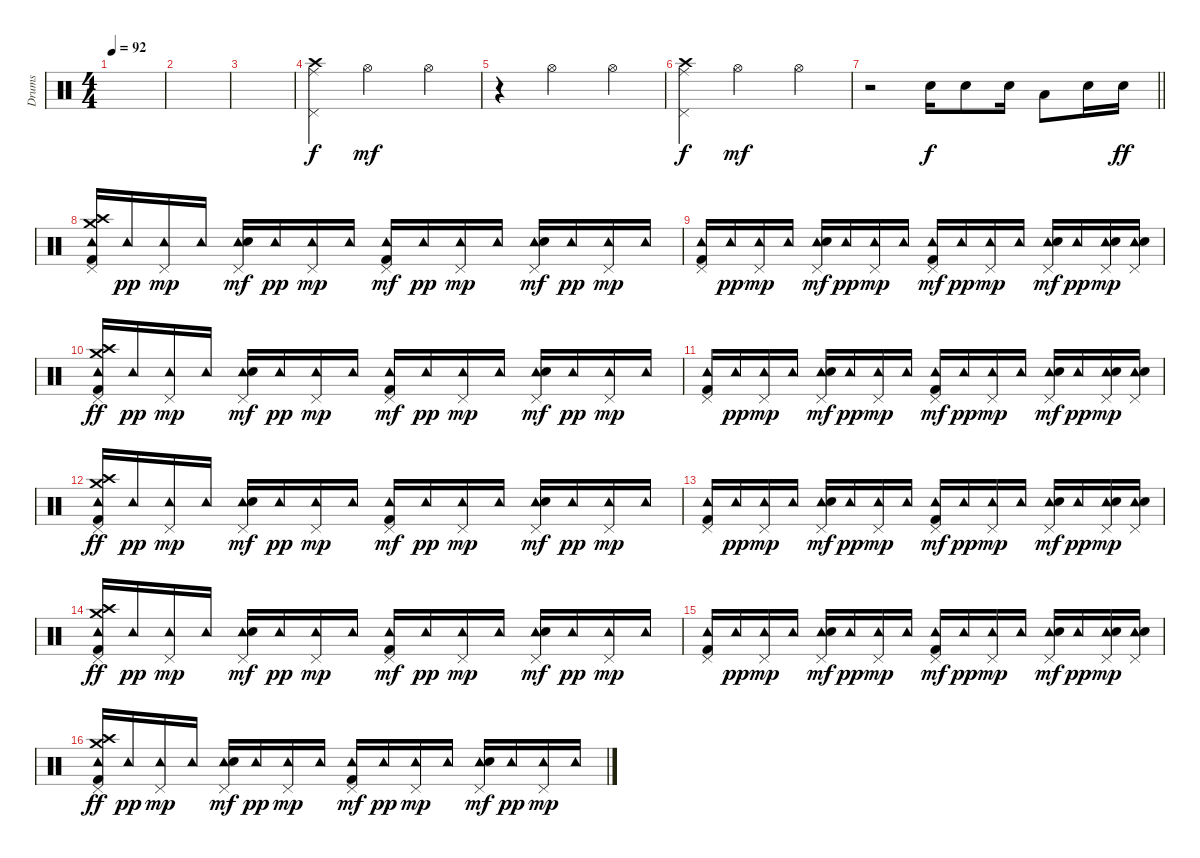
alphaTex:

\track ("Drums" "Drums") {instrument percussion}
\staff {score}
\articulation defaults
\ts (4 4)
\tempo 92
\clef neutral
\ks c
|
|
|
("Pedal Hi-Hat (hit)" "Ride (middle)" "Crash high (hit)").4{dy f} "Hi-Hat (open)".2{dy mf} "Hi-Hat (open)".4 |
r.4 "Hi-Hat (open)".2 "Hi-Hat (open)".4 |
("Pedal Hi-Hat (hit)" "Ride (middle)" "Crash high (hit)").4{dy f} "Hi-Hat (open)".2{dy mf} "Hi-Hat (open)".4 |
\barLineRight lightlight
r.2 "Electric Snare (hit)".16{dy f} "Electric Snare (hit)".8 "Electric Snare (hit)".16 "Low Floor Tom (hit)".8 "Electric Snare (hit)".16 "Electric Snare (hit)".16{dy ff} |
("Pedal Hi-Hat (hit)" "Tambourine (hit)" "Crash medium (hit)" "Crash high (hit)" "Kick (hit) 2").16 "Tambourine (hit)".16{dy pp} ("Pedal Hi-Hat (hit)" "Tambourine (hit)").16{dy mp} "Tambourine (hit)".16 ("Pedal Hi-Hat (hit)" "Tambourine (hit)" "Electric Snare (hit)").16{dy mf} "Tambourine (hit)".16{dy pp} ("Pedal Hi-Hat (hit)" "Tambourine (hit)").16{dy mp} "Tambourine (hit)".16 ("Pedal Hi-Hat (hit)" "Tambourine (hit)" "Kick (hit) 2").16{dy mf} "Tambourine (hit)".16{dy pp} ("Pedal Hi-Hat (hit)" "Tambourine (hit)").16{dy mp} "Tambourine (hit)".16 ("Pedal Hi-Hat (hit)" "Tambourine (hit)" "Electric Snare (hit)").16{dy mf} "Tambourine (hit)".16{dy pp} ("Pedal Hi-Hat (hit)" "Tambourine (hit)").16{dy mp} "Tambourine (hit)".16 |
("Pedal Hi-Hat (hit)" "Tambourine (hit)" "Kick (hit) 2").16 "Tambourine (hit)".16{dy pp} ("Pedal Hi-Hat (hit)" "Tambourine (hit)").16{dy mp} "Tambourine (hit)".16 ("Pedal Hi-Hat (hit)" "Tambourine (hit)" "Electric Snare (hit)").16{dy mf} "Tambourine (hit)".16{dy pp} ("Pedal Hi-Hat (hit)" "Tambourine (hit)").16{dy mp} "Tambourine (hit)".16 ("Pedal Hi-Hat (hit)" "Tambourine (hit)" "Kick (hit) 2").16{dy mf} "Tambourine (hit)".16{dy pp} ("Pedal Hi-Hat (hit)" "Tambourine (hit)").16{dy mp} "Tambourine (hit)".16 ("Pedal Hi-Hat (hit)" "Tambourine (hit)" "Electric Snare (hit)").16{dy mf} "Tambourine (hit)".16{dy pp} ("Pedal Hi-Hat (hit)" "Tambourine (hit)" "Electric Snare (hit)").16{dy mp} ("Pedal Hi-Hat (hit)" "Tambourine (hit)" "Electric Snare (hit)").16 |
("Pedal Hi-Hat (hit)" "Tambourine (hit)" "Crash medium (hit)" "Crash high (hit)" "Kick (hit) 2").16{dy ff} "Tambourine (hit)".16{dy pp} ("Pedal Hi-Hat (hit)" "Tambourine (hit)").16{dy mp} "Tambourine (hit)".16 ("Pedal Hi-Hat (hit)" "Tambourine (hit)" "Electric Snare (hit)").16{dy mf} "Tambourine (hit)".16{dy pp} ("Pedal Hi-Hat (hit)" "Tambourine (hit)").16{dy mp} "Tambourine (hit)".16 ("Pedal Hi-Hat (hit)" "Tambourine (hit)" "Kick (hit) 2").16{dy mf} "Tambourine (hit)".16{dy pp} ("Pedal Hi-Hat (hit)" "Tambourine (hit)").16{dy mp} "Tambourine (hit)".16 ("Pedal Hi-Hat (hit)" "Tambourine (hit)" "Electric Snare (hit)").16{dy mf} "Tambourine (hit)".16{dy pp} ("Pedal Hi-Hat (hit)" "Tambourine (hit)").16{dy mp} "Tambourine (hit)".16 |
("Pedal Hi-Hat (hit)" "Tambourine (hit)" "Kick (hit) 2").16 "Tambourine (hit)".16{dy pp} ("Pedal Hi-Hat (hit)" "Tambourine (hit)").16{dy mp} "Tambourine (hit)".16 ("Pedal Hi-Hat (hit)" "Tambourine (hit)" "Electric Snare (hit)").16{dy mf} "Tambourine (hit)".16{dy pp} ("Pedal Hi-Hat (hit)" "Tambourine (hit)").16{dy mp} "Tambourine (hit)".16 ("Pedal Hi-Hat (hit)" "Tambourine (hit)" "Kick (hit) 2").16{dy mf} "Tambourine (hit)".16{dy pp} ("Pedal Hi-Hat (hit)" "Tambourine (hit)").16{dy mp} "Tambourine (hit)".16 ("Pedal Hi-Hat (hit)" "Tambourine (hit)" "Electric Snare (hit)").16{dy mf} "Tambourine (hit)".16{dy pp} ("Pedal Hi-Hat (hit)" "Tambourine (hit)" "Electric Snare (hit)").16{dy mp} ("Pedal Hi-Hat (hit)" "Tambourine (hit)" "Electric Snare (hit)").16 |
("Pedal Hi-Hat (hit)" "Tambourine (hit)" "Crash medium (hit)" "Crash high (hit)" "Kick (hit) 2").16{dy ff} "Tambourine (hit)".16{dy pp} ("Pedal Hi-Hat (hit)" "Tambourine (hit)").16{dy mp} "Tambourine (hit)".16 ("Pedal Hi-Hat (hit)" "Tambourine (hit)" "Electric Snare (hit)").16{dy mf} "Tambourine (hit)".16{dy pp} ("Pedal Hi-Hat (hit)" "Tambourine (hit)").16{dy mp} "Tambourine (hit)".16 ("Pedal Hi-Hat (hit)" "Tambourine (hit)" "Kick (hit) 2").16{dy mf} "Tambourine (hit)".16{dy pp} ("Pedal Hi-Hat (hit)" "Tambourine (hit)").16{dy mp} "Tambourine (hit)".16 ("Pedal Hi-Hat (hit)" "Tambourine (hit)" "Electric Snare (hit)").16{dy mf} "Tambourine (hit)".16{dy pp} ("Pedal Hi-Hat (hit)" "Tambourine (hit)").16{dy mp} "Tambourine (hit)".16 |
("Pedal Hi-Hat (hit)" "Tambourine (hit)" "Kick (hit) 2").16 "Tambourine (hit)".16{dy pp} ("Pedal Hi-Hat (hit)" "Tambourine (hit)").16{dy mp} "Tambourine (hit)".16 ("Pedal Hi-Hat (hit)" "Tambourine (hit)" "Electric Snare (hit)").16{dy mf} "Tambourine (hit)".16{dy pp} ("Pedal Hi-Hat (hit)" "Tambourine (hit)").16{dy mp} "Tambourine (hit)".16 ("Pedal Hi-Hat (hit)" "Tambourine (hit)" "Kick (hit) 2").16{dy mf} "Tambourine (hit)".16{dy pp} ("Pedal Hi-Hat (hit)" "Tambourine (hit)").16{dy mp} "Tambourine (hit)".16 ("Pedal Hi-Hat (hit)" "Tambourine (hit)" "Electric Snare (hit)").16{dy mf} "Tambourine (hit)".16{dy pp} ("Pedal Hi-Hat (hit)" "Tambourine (hit)" "Electric Snare (hit)").16{dy mp} ("Pedal Hi-Hat (hit)" "Tambourine (hit)" "Electric Snare (hit)").16 |
("Pedal Hi-Hat (hit)" "Tambourine (hit)" "Crash medium (hit)" "Crash high (hit)" "Kick (hit) 2").16{dy ff} "Tambourine (hit)".16{dy pp} ("Pedal Hi-Hat (hit)" "Tambourine (hit)").16{dy mp} "Tambourine (hit)".16 ("Pedal Hi-Hat (hit)" "Tambourine (hit)" "Electric Snare (hit)").16{dy mf} "Tambourine (hit)".16{dy pp} ("Pedal Hi-Hat (hit)" "Tambourine (hit)").16{dy mp} "Tambourine (hit)".16 ("Pedal Hi-Hat (hit)" "Tambourine (hit)" "Kick (hit) 2").16{dy mf} "Tambourine (hit)".16{dy pp} ("Pedal Hi-Hat (hit)" "Tambourine (hit)").16{dy mp} "Tambourine (hit)".16 ("Pedal Hi-Hat (hit)" "Tambourine (hit)" "Electric Snare (hit)").16{dy mf} "Tambourine (hit)".16{dy pp} ("Pedal Hi-Hat (hit)" "Tambourine (hit)").16{dy mp} "Tambourine (hit)".16 |
("Pedal Hi-Hat (hit)" "Tambourine (hit)" "Kick (hit) 2").16 "Tambourine (hit)".16{dy pp} ("Pedal Hi-Hat (hit)" "Tambourine (hit)").16{dy mp} "Tambourine (hit)".16 ("Pedal Hi-Hat (hit)" "Tambourine (hit)" "Electric Snare (hit)").16{dy mf} "Tambourine (hit)".16{dy pp} ("Pedal Hi-Hat (hit)" "Tambourine (hit)").16{dy mp} "Tambourine (hit)".16 ("Pedal Hi-Hat (hit)" "Tambourine (hit)" "Kick (hit) 2").16{dy mf} "Tambourine (hit)".16{dy pp} ("Pedal Hi-Hat (hit)" "Tambourine (hit)").16{dy mp} "Tambourine (hit)".16 ("Pedal Hi-Hat (hit)" "Tambourine (hit)" "Electric Snare (hit)").16{dy mf} "Tambourine (hit)".16{dy pp} ("Pedal Hi-Hat (hit)" "Tambourine (hit)" "Electric Snare (hit)").16{dy mp} ("Pedal Hi-Hat (hit)" "Tambourine (hit)" "Electric Snare (hit)").16 |
("Pedal Hi-Hat (hit)" "Tambourine (hit)" "Crash medium (hit)" "Crash high (hit)" "Kick (hit) 2").16{dy ff} "Tambourine (hit)".16{dy pp} ("Pedal Hi-Hat (hit)" "Tambourine (hit)").16{dy mp} "Tambourine (hit)".16 ("Pedal Hi-Hat (hit)" "Tambourine (hit)" "Electric Snare (hit)").16{dy mf} "Tambourine (hit)".16{dy pp} ("Pedal Hi-Hat (hit)" "Tambourine (hit)").16{dy mp} "Tambourine (hit)".16 ("Pedal Hi-Hat (hit)" "Tambourine (hit)" "Kick (hit) 2").16{dy mf} "Tambourine (hit)".16{dy pp} ("Pedal Hi-Hat (hit)" "Tambourine (hit)").16{dy mp} "Tambourine (hit)".16 ("Pedal Hi-Hat (hit)" "Tambourine (hit)" "Electric Snare (hit)").16{dy mf} "Tambourine (hit)".16{dy pp} ("Pedal Hi-Hat (hit)" "Tambourine (hit)").16{dy mp} "Tambourine (hit)".16
